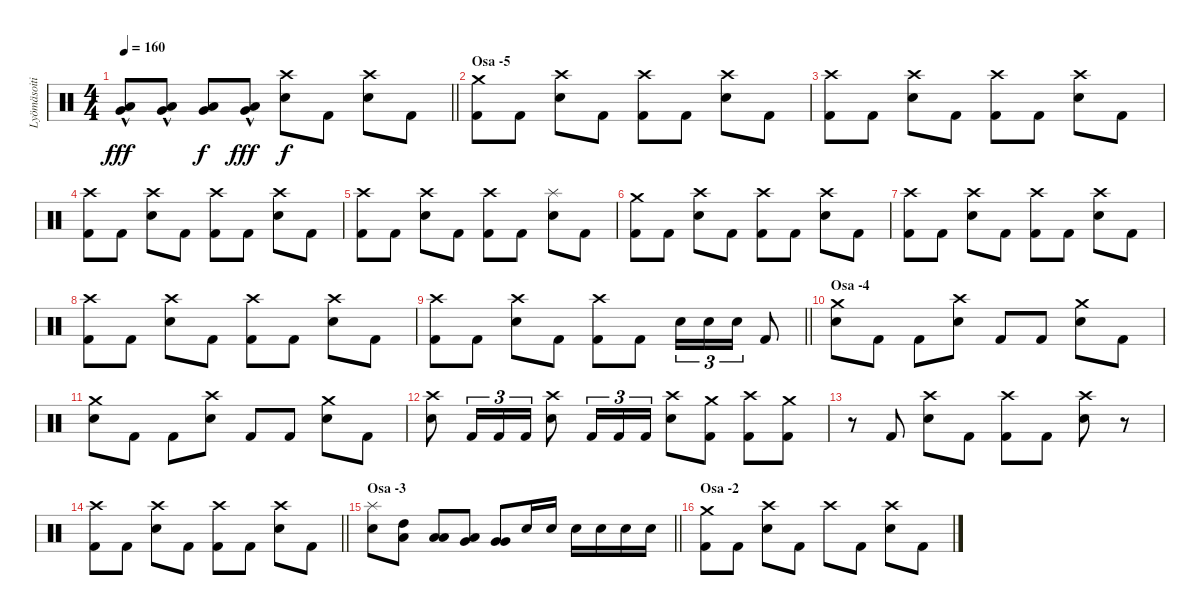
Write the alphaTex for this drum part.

\track ("Lyömäsoitin" "Lyömäsoiti") {instrument percussion}
\staff {score}
\articulation defaults
\ts (4 4)
\tempo 160
\clef neutral
\barLineRight lightlight
\ks c
("Low Tom (hit)"{hac} "Very Low Tom (hit)"{hac}).8{dy fff} ("Low Tom (hit)"{hac} "Very Low Tom (hit)"{hac}).8 ("Low Tom (hit)" "Very Low Tom (hit)").8{dy f} ("Low Tom (hit)"{hac} "Very Low Tom (hit)"{hac}).8{dy fff} ("Crash high (hit)" "Snare (hit) 2").8{dy f} "Kick (hit) 2".8 ("Crash high (hit)" "Snare (hit) 2").8 "Kick (hit) 2".8 |
\section ("" "Osa -5")
("Crash medium (hit)" "Kick (hit) 2").8 "Kick (hit) 2".8 ("Crash high (hit)" "Snare (hit) 2").8 "Kick (hit) 2".8 ("Crash high (hit)" "Kick (hit) 2").8 "Kick (hit) 2".8 ("Crash high (hit)" "Snare (hit) 2").8 "Kick (hit) 2".8 |
("Crash high (hit)" "Kick (hit) 2").8 "Kick (hit) 2".8 ("Crash high (hit)" "Snare (hit) 2").8 "Kick (hit) 2".8 ("Crash high (hit)" "Kick (hit) 2").8 "Kick (hit) 2".8 ("Crash high (hit)" "Snare (hit) 2").8 "Kick (hit) 2".8 |
("Crash high (hit)" "Kick (hit) 2").8 "Kick (hit) 2".8 ("Crash high (hit)" "Snare (hit) 2").8 "Kick (hit) 2".8 ("Crash high (hit)" "Kick (hit) 2").8 "Kick (hit) 2".8 ("Crash high (hit)" "Snare (hit) 2").8 "Kick (hit) 2".8 |
("Crash high (hit)" "Kick (hit) 2").8 "Kick (hit) 2".8 ("Crash high (hit)" "Snare (hit) 2").8 "Kick (hit) 2".8 ("Crash high (hit)" "Kick (hit) 2").8 "Kick (hit) 2".8 ("Splash (hit)" "Snare (hit) 2").8 "Kick (hit) 2".8 |
("Crash medium (hit)" "Kick (hit) 2").8 "Kick (hit) 2".8 ("Crash high (hit)" "Snare (hit) 2").8 "Kick (hit) 2".8 ("Crash high (hit)" "Kick (hit) 2").8 "Kick (hit) 2".8 ("Crash high (hit)" "Snare (hit) 2").8 "Kick (hit) 2".8 |
("Crash high (hit)" "Kick (hit) 2").8 "Kick (hit) 2".8 ("Crash high (hit)" "Snare (hit) 2").8 "Kick (hit) 2".8 ("Crash high (hit)" "Kick (hit) 2").8 "Kick (hit) 2".8 ("Crash high (hit)" "Snare (hit) 2").8 "Kick (hit) 2".8 |
("Crash high (hit)" "Kick (hit) 2").8 "Kick (hit) 2".8 ("Crash high (hit)" "Snare (hit) 2").8 "Kick (hit) 2".8 ("Crash high (hit)" "Kick (hit) 2").8 "Kick (hit) 2".8 ("Crash high (hit)" "Snare (hit) 2").8 "Kick (hit) 2".8 |
\barLineRight lightlight
("Crash high (hit)" "Kick (hit) 2").8 "Kick (hit) 2".8 ("Crash high (hit)" "Snare (hit) 2").8 "Kick (hit) 2".8 ("Crash high (hit)" "Kick (hit) 2").8 "Kick (hit) 2".8 "Snare (hit) 2".16{tu (3 2)} "Snare (hit) 2".16{tu (3 2)} "Snare (hit) 2".16{tu (3 2)} "Kick (hit) 2".8 |
\section ("" "Osa -4")
("Crash medium (hit)" "Snare (hit) 2").8 "Kick (hit) 2".8 "Kick (hit) 2".8 ("Crash high (hit)" "Snare (hit) 2").8 "Kick (hit) 2".8 "Kick (hit) 2".8 ("Crash medium (hit)" "Snare (hit) 2").8 "Kick (hit) 2".8 |
("Crash medium (hit)" "Snare (hit) 2").8 "Kick (hit) 2".8 "Kick (hit) 2".8 ("Crash high (hit)" "Snare (hit) 2").8 "Kick (hit) 2".8 "Kick (hit) 2".8 ("Crash medium (hit)" "Snare (hit) 2").8 "Kick (hit) 2".8 |
("Crash high (hit)" "Snare (hit) 2").8 "Kick (hit) 2".16{tu (3 2)} "Kick (hit) 2".16{tu (3 2)} "Kick (hit) 2".16{tu (3 2)} ("Crash high (hit)" "Snare (hit) 2").8 "Kick (hit) 2".16{tu (3 2)} "Kick (hit) 2".16{tu (3 2)} "Kick (hit) 2".16{tu (3 2)} ("Crash high (hit)" "Snare (hit) 2").8 ("Crash medium (hit)" "Kick (hit) 2").8 ("Crash high (hit)" "Kick (hit) 2").8 ("Crash medium (hit)" "Kick (hit) 2").8 |
r.8 "Kick (hit) 2".8 ("Crash high (hit)" "Snare (hit) 2").8 "Kick (hit) 2".8 ("Crash high (hit)" "Kick (hit) 2").8 "Kick (hit) 2".8 ("Crash high (hit)" "Snare (hit) 2").8 r.8 |
\barLineRight lightlight
("Crash high (hit)" "Kick (hit) 2").8 "Kick (hit) 2".8 ("Crash high (hit)" "Snare (hit) 2").8 "Kick (hit) 2".8 ("Crash high (hit)" "Kick (hit) 2").8 "Kick (hit) 2".8 ("Crash high (hit)" "Snare (hit) 2").8 "Kick (hit) 2".8 |
\section ("" "Osa -3")
\barLineRight lightlight
("Splash (hit)" "Snare (hit) 2").8 ("High Tom (hit)" "Low Tom (hit)").8 ("Low Tom (hit)" "Low Tom (hit)").8 ("Low Tom (hit)" "Very Low Tom (hit)").8 ("Very Low Tom (hit)" "Very Low Tom (hit)").8 "Snare (hit) 2".16 "Snare (hit) 2".16 "Snare (hit) 2".16 "Snare (hit) 2".16 "Snare (hit) 2".16 "Snare (hit) 2".16 |
\section ("" "Osa -2")
("Crash medium (hit)" "Kick (hit) 2").8 "Kick (hit) 2".8 ("Crash high (hit)" "Snare (hit) 2").8 "Kick (hit) 2".8 "Crash high (hit)".8 "Kick (hit) 2".8 ("Crash high (hit)" "Snare (hit) 2").8 "Kick (hit) 2".8
